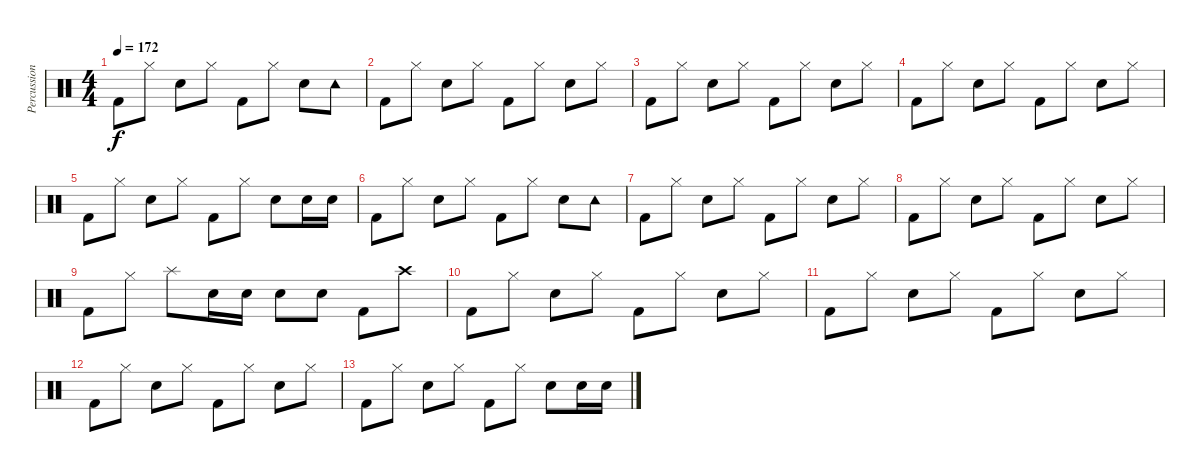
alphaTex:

\track ("Percussion" "Percussion") {instrument percussion}
\staff {score}
\articulation defaults
\ts (4 4)
\tempo 172
\clef neutral
\ks c "Kick (hit) 2".8{dy f} "Hi-Hat (closed)".8 "Snare (hit) 2".8 "Hi-Hat (closed)".8 "Kick (hit) 2".8 "Hi-Hat (closed)".8 "Snare (hit) 2".8 "Tambourine (hit)".8
|
"Kick (hit) 2".8 "Hi-Hat (closed)".8 "Snare (hit) 2".8 "Hi-Hat (closed)".8 "Kick (hit) 2".8 "Hi-Hat (closed)".8 "Snare (hit) 2".8 "Hi-Hat (closed)".8 |
"Kick (hit) 2".8 "Hi-Hat (closed)".8 "Snare (hit) 2".8 "Hi-Hat (closed)".8 "Kick (hit) 2".8 "Hi-Hat (closed)".8 "Snare (hit) 2".8 "Hi-Hat (closed)".8 |
"Kick (hit) 2".8 "Hi-Hat (closed)".8 "Snare (hit) 2".8 "Hi-Hat (closed)".8 "Kick (hit) 2".8 "Hi-Hat (closed)".8 "Snare (hit) 2".8 "Hi-Hat (closed)".8 |
"Kick (hit) 2".8 "Hi-Hat (closed)".8 "Snare (hit) 2".8 "Hi-Hat (closed)".8 "Kick (hit) 2".8 "Hi-Hat (closed)".8 "Snare (hit) 2".8 "Snare (hit) 2".16 "Snare (hit) 2".16 |
"Kick (hit) 2".8 "Hi-Hat (closed)".8 "Snare (hit) 2".8 "Hi-Hat (closed)".8 "Kick (hit) 2".8 "Hi-Hat (closed)".8 "Snare (hit) 2".8 "Tambourine (hit)".8 |
"Kick (hit) 2".8 "Hi-Hat (closed)".8 "Snare (hit) 2".8 "Hi-Hat (closed)".8 "Kick (hit) 2".8 "Hi-Hat (closed)".8 "Snare (hit) 2".8 "Hi-Hat (closed)".8 |
"Kick (hit) 2".8 "Hi-Hat (closed)".8 "Snare (hit) 2".8 "Hi-Hat (closed)".8 "Kick (hit) 2".8 "Hi-Hat (closed)".8 "Snare (hit) 2".8 "Hi-Hat (closed)".8 |
"Kick (hit) 2".8 "Hi-Hat (closed)".8 "Splash (hit)".8 "Snare (hit) 2".16 "Snare (hit) 2".16 "Snare (hit) 2".8 "Snare (hit) 2".8 "Kick (hit) 2".8 "Crash high (hit)".8 |
"Kick (hit) 2".8 "Hi-Hat (closed)".8 "Snare (hit) 2".8 "Hi-Hat (closed)".8 "Kick (hit) 2".8 "Hi-Hat (closed)".8 "Snare (hit) 2".8 "Hi-Hat (closed)".8 |
"Kick (hit) 2".8 "Hi-Hat (closed)".8 "Snare (hit) 2".8 "Hi-Hat (closed)".8 "Kick (hit) 2".8 "Hi-Hat (closed)".8 "Snare (hit) 2".8 "Hi-Hat (closed)".8 |
"Kick (hit) 2".8 "Hi-Hat (closed)".8 "Snare (hit) 2".8 "Hi-Hat (closed)".8 "Kick (hit) 2".8 "Hi-Hat (closed)".8 "Snare (hit) 2".8 "Hi-Hat (closed)".8 |
"Kick (hit) 2".8 "Hi-Hat (closed)".8 "Snare (hit) 2".8 "Hi-Hat (closed)".8 "Kick (hit) 2".8 "Hi-Hat (closed)".8 "Snare (hit) 2".8 "Snare (hit) 2".16 "Snare (hit) 2".16
